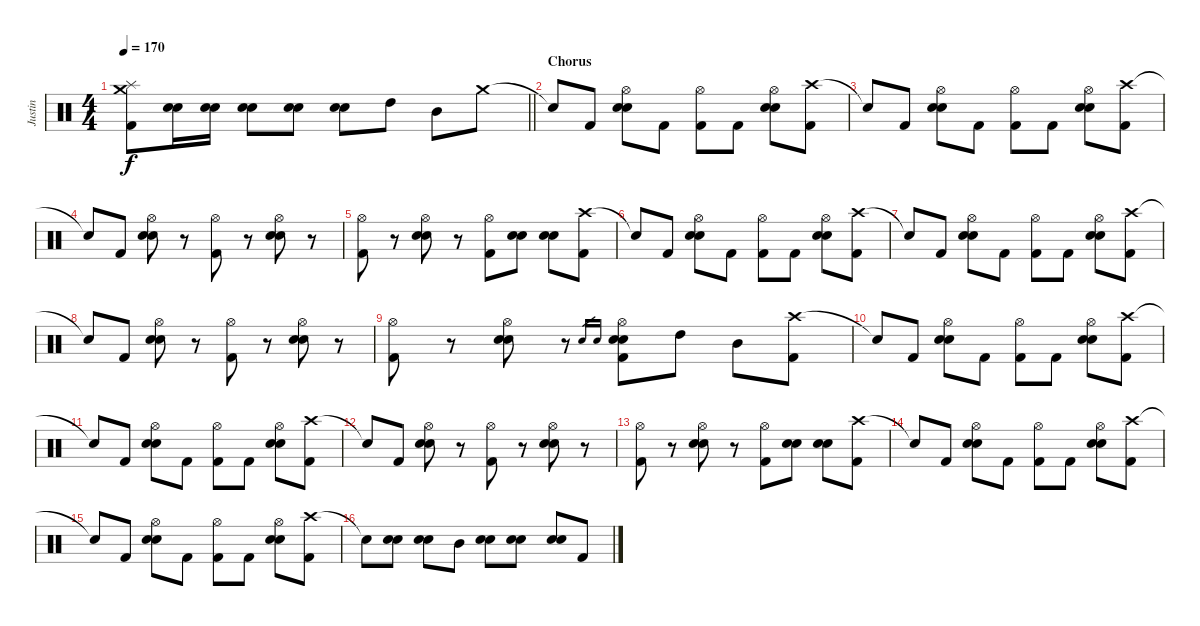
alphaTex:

\track ("Justin" "Justin") {instrument percussion}
\staff {score}
\articulation defaults
\ts (4 4)
\tempo 170
\clef neutral
\barLineRight lightlight
\ks c
("Crash medium (hit)" "Splash (hit)" "Kick (hit) 2").8{dy f} ("Electric Snare (hit)" "Snare (hit) 2").16 ("Electric Snare (hit)" "Snare (hit) 2").16 ("Electric Snare (hit)" "Snare (hit) 2").8 ("Electric Snare (hit)" "Snare (hit) 2").8 ("Electric Snare (hit)" "Snare (hit) 2").8 "High Tom (hit)".8 "Mid Tom (hit)".8 "Crash medium (hit)".8 |
\section ("" "Chorus")
"Snare (hit)"{t}.8 "Kick (hit) 2".8 ("Hi-Hat (open)" "Electric Snare (hit)" "Snare (hit) 2").8 "Kick (hit) 2".8 ("Hi-Hat (open)" "Kick (hit) 2").8 "Kick (hit) 2".8 ("Hi-Hat (open)" "Electric Snare (hit)" "Snare (hit) 2").8 ("Crash high (hit)" "Kick (hit) 2").8 |
"Snare (hit)"{t}.8 "Kick (hit) 2".8 ("Hi-Hat (open)" "Electric Snare (hit)" "Snare (hit) 2").8 "Kick (hit) 2".8 ("Hi-Hat (open)" "Kick (hit) 2").8 "Kick (hit) 2".8 ("Hi-Hat (open)" "Electric Snare (hit)" "Snare (hit) 2").8 ("Crash high (hit)" "Kick (hit) 2").8 |
"Snare (hit)"{t}.8 "Kick (hit) 2".8 ("Hi-Hat (open)" "Electric Snare (hit)" "Snare (hit) 2").8 r.8 ("Hi-Hat (open)" "Kick (hit) 2").8 r.8 ("Hi-Hat (open)" "Electric Snare (hit)" "Snare (hit) 2").8 r.8 |
("Hi-Hat (open)" "Kick (hit) 2").8 r.8 ("Hi-Hat (open)" "Electric Snare (hit)" "Snare (hit) 2").8 r.8 ("Hi-Hat (open)" "Kick (hit) 2").8 ("Electric Snare (hit)" "Snare (hit) 2").8 ("Electric Snare (hit)" "Snare (hit) 2").8 ("Crash high (hit)" "Kick (hit) 2").8 |
"Snare (hit)"{t}.8 "Kick (hit) 2".8 ("Hi-Hat (open)" "Electric Snare (hit)" "Snare (hit) 2").8 "Kick (hit) 2".8 ("Hi-Hat (open)" "Kick (hit) 2").8 "Kick (hit) 2".8 ("Hi-Hat (open)" "Electric Snare (hit)" "Snare (hit) 2").8 ("Crash high (hit)" "Kick (hit) 2").8 |
"Snare (hit)"{t}.8 "Kick (hit) 2".8 ("Hi-Hat (open)" "Electric Snare (hit)" "Snare (hit) 2").8 "Kick (hit) 2".8 ("Hi-Hat (open)" "Kick (hit) 2").8 "Kick (hit) 2".8 ("Hi-Hat (open)" "Electric Snare (hit)" "Snare (hit) 2").8 ("Crash high (hit)" "Kick (hit) 2").8 |
"Snare (hit)"{t}.8 "Kick (hit) 2".8 ("Hi-Hat (open)" "Electric Snare (hit)" "Snare (hit) 2").8 r.8 ("Hi-Hat (open)" "Kick (hit) 2").8 r.8 ("Hi-Hat (open)" "Electric Snare (hit)" "Snare (hit) 2").8 r.8 |
("Hi-Hat (open)" "Kick (hit) 2").8 r.8 ("Hi-Hat (open)" "Electric Snare (hit)" "Snare (hit) 2").8 r.8 "Electric Snare (hit)".16{gr} "Snare (hit) 2".16{gr} ("Hi-Hat (open)" "Electric Snare (hit)" "Snare (hit) 2" "Kick (hit) 2").8 "High Tom (hit)".8 "Mid Tom (hit)".8 ("Crash high (hit)" "Kick (hit) 2").8 |
"Snare (hit)"{t}.8 "Kick (hit) 2".8 ("Hi-Hat (open)" "Electric Snare (hit)" "Snare (hit) 2").8 "Kick (hit) 2".8 ("Hi-Hat (open)" "Kick (hit) 2").8 "Kick (hit) 2".8 ("Hi-Hat (open)" "Electric Snare (hit)" "Snare (hit) 2").8 ("Crash high (hit)" "Kick (hit) 2").8 |
"Snare (hit)"{t}.8 "Kick (hit) 2".8 ("Hi-Hat (open)" "Electric Snare (hit)" "Snare (hit) 2").8 "Kick (hit) 2".8 ("Hi-Hat (open)" "Kick (hit) 2").8 "Kick (hit) 2".8 ("Hi-Hat (open)" "Electric Snare (hit)" "Snare (hit) 2").8 ("Crash high (hit)" "Kick (hit) 2").8 |
"Snare (hit)"{t}.8 "Kick (hit) 2".8 ("Hi-Hat (open)" "Electric Snare (hit)" "Snare (hit) 2").8 r.8 ("Hi-Hat (open)" "Kick (hit) 2").8 r.8 ("Hi-Hat (open)" "Electric Snare (hit)" "Snare (hit) 2").8 r.8 |
("Hi-Hat (open)" "Kick (hit) 2").8 r.8 ("Hi-Hat (open)" "Electric Snare (hit)" "Snare (hit) 2").8 r.8 ("Hi-Hat (open)" "Kick (hit) 2").8 ("Electric Snare (hit)" "Snare (hit) 2").8 ("Electric Snare (hit)" "Snare (hit) 2").8 ("Crash high (hit)" "Kick (hit) 2").8 |
"Snare (hit)"{t}.8 "Kick (hit) 2".8 ("Hi-Hat (open)" "Electric Snare (hit)" "Snare (hit) 2").8 "Kick (hit) 2".8 ("Hi-Hat (open)" "Kick (hit) 2").8 "Kick (hit) 2".8 ("Hi-Hat (open)" "Electric Snare (hit)" "Snare (hit) 2").8 ("Crash high (hit)" "Kick (hit) 2").8 |
"Snare (hit)"{t}.8 "Kick (hit) 2".8 ("Hi-Hat (open)" "Electric Snare (hit)" "Snare (hit) 2").8 "Kick (hit) 2".8 ("Hi-Hat (open)" "Kick (hit) 2").8 "Kick (hit) 2".8 ("Hi-Hat (open)" "Electric Snare (hit)" "Snare (hit) 2").8 ("Crash high (hit)" "Kick (hit) 2").8 |
"Snare (hit)"{t}.8 ("Electric Snare (hit)" "Snare (hit) 2").8 ("Electric Snare (hit)" "Snare (hit) 2").8 "Mid Tom (hit)".8 ("Electric Snare (hit)" "Snare (hit) 2").8 ("Electric Snare (hit)" "Snare (hit) 2").8 ("Electric Snare (hit)" "Snare (hit) 2").8 "Kick (hit) 2".8
